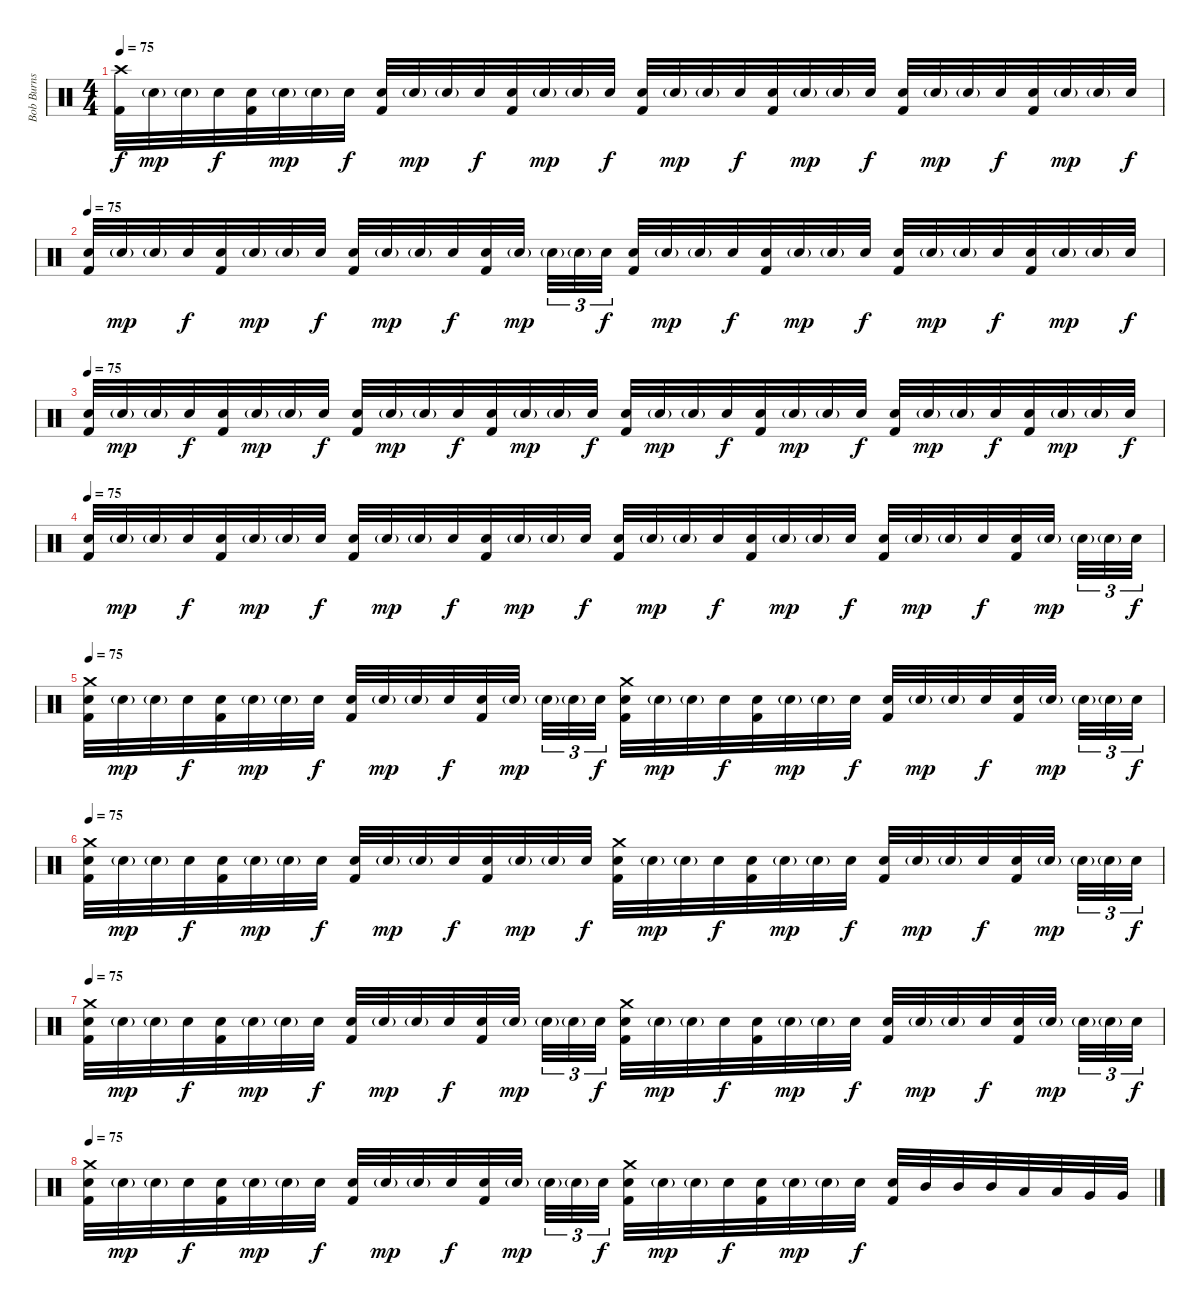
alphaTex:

\track ("Bob Burns (drums and percussion)" "Bob Burns ") {instrument percussion}
\staff {score}
\articulation defaults
\ts (4 4)
\tempo 75
\clef neutral
\ks c
("Crash high (hit)" "Kick (hit) 2").32{dy f} "Electric Snare (hit)"{g}.32{dy mp} "Electric Snare (hit)"{g}.32 "Electric Snare (hit)".32{dy f} ("Electric Snare (hit)" "Kick (hit) 2").32 "Electric Snare (hit)"{g}.32{dy mp} "Electric Snare (hit)"{g}.32 "Electric Snare (hit)".32{dy f} ("Electric Snare (hit)" "Kick (hit) 2").32 "Electric Snare (hit)"{g}.32{dy mp} "Electric Snare (hit)"{g}.32 "Electric Snare (hit)".32{dy f} ("Electric Snare (hit)" "Kick (hit) 2").32 "Electric Snare (hit)"{g}.32{dy mp} "Electric Snare (hit)"{g}.32 "Electric Snare (hit)".32{dy f} ("Electric Snare (hit)" "Kick (hit) 2").32 "Electric Snare (hit)"{g}.32{dy mp} "Electric Snare (hit)"{g}.32 "Electric Snare (hit)".32{dy f} ("Electric Snare (hit)" "Kick (hit) 2").32 "Electric Snare (hit)"{g}.32{dy mp} "Electric Snare (hit)"{g}.32 "Electric Snare (hit)".32{dy f} ("Electric Snare (hit)" "Kick (hit) 2").32 "Electric Snare (hit)"{g}.32{dy mp} "Electric Snare (hit)"{g}.32 "Electric Snare (hit)".32{dy f} ("Electric Snare (hit)" "Kick (hit) 2").32 "Electric Snare (hit)"{g}.32{dy mp} "Electric Snare (hit)"{g}.32 "Electric Snare (hit)".32{dy f} |
\tempo 75
("Electric Snare (hit)" "Kick (hit) 2").32 "Electric Snare (hit)"{g}.32{dy mp} "Electric Snare (hit)"{g}.32 "Electric Snare (hit)".32{dy f} ("Electric Snare (hit)" "Kick (hit) 2").32 "Electric Snare (hit)"{g}.32{dy mp} "Electric Snare (hit)"{g}.32 "Electric Snare (hit)".32{dy f} ("Electric Snare (hit)" "Kick (hit) 2").32 "Electric Snare (hit)"{g}.32{dy mp} "Electric Snare (hit)"{g}.32 "Electric Snare (hit)".32{dy f} ("Electric Snare (hit)" "Kick (hit) 2").32 "Electric Snare (hit)"{g}.32{dy mp beam splitsecondary} "Electric Snare (hit)"{g}.32{tu (3 2)} "Electric Snare (hit)"{g}.32{tu (3 2)} "Electric Snare (hit)".32{tu (3 2) dy f} ("Electric Snare (hit)" "Kick (hit) 2").32 "Electric Snare (hit)"{g}.32{dy mp} "Electric Snare (hit)"{g}.32 "Electric Snare (hit)".32{dy f} ("Electric Snare (hit)" "Kick (hit) 2").32 "Electric Snare (hit)"{g}.32{dy mp} "Electric Snare (hit)"{g}.32 "Electric Snare (hit)".32{dy f} ("Electric Snare (hit)" "Kick (hit) 2").32 "Electric Snare (hit)"{g}.32{dy mp} "Electric Snare (hit)"{g}.32 "Electric Snare (hit)".32{dy f} ("Electric Snare (hit)" "Kick (hit) 2").32 "Electric Snare (hit)"{g}.32{dy mp} "Electric Snare (hit)"{g}.32 "Electric Snare (hit)".32{dy f} |
\tempo 75
("Electric Snare (hit)" "Kick (hit) 2").32 "Electric Snare (hit)"{g}.32{dy mp} "Electric Snare (hit)"{g}.32 "Electric Snare (hit)".32{dy f} ("Electric Snare (hit)" "Kick (hit) 2").32 "Electric Snare (hit)"{g}.32{dy mp} "Electric Snare (hit)"{g}.32 "Electric Snare (hit)".32{dy f} ("Electric Snare (hit)" "Kick (hit) 2").32 "Electric Snare (hit)"{g}.32{dy mp} "Electric Snare (hit)"{g}.32 "Electric Snare (hit)".32{dy f} ("Electric Snare (hit)" "Kick (hit) 2").32 "Electric Snare (hit)"{g}.32{dy mp} "Electric Snare (hit)"{g}.32 "Electric Snare (hit)".32{dy f} ("Electric Snare (hit)" "Kick (hit) 2").32 "Electric Snare (hit)"{g}.32{dy mp} "Electric Snare (hit)"{g}.32 "Electric Snare (hit)".32{dy f} ("Electric Snare (hit)" "Kick (hit) 2").32 "Electric Snare (hit)"{g}.32{dy mp} "Electric Snare (hit)"{g}.32 "Electric Snare (hit)".32{dy f} ("Electric Snare (hit)" "Kick (hit) 2").32 "Electric Snare (hit)"{g}.32{dy mp} "Electric Snare (hit)"{g}.32 "Electric Snare (hit)".32{dy f} ("Electric Snare (hit)" "Kick (hit) 2").32 "Electric Snare (hit)"{g}.32{dy mp} "Electric Snare (hit)"{g}.32 "Electric Snare (hit)".32{dy f} |
\tempo 75
("Electric Snare (hit)" "Kick (hit) 2").32 "Electric Snare (hit)"{g}.32{dy mp} "Electric Snare (hit)"{g}.32 "Electric Snare (hit)".32{dy f} ("Electric Snare (hit)" "Kick (hit) 2").32 "Electric Snare (hit)"{g}.32{dy mp} "Electric Snare (hit)"{g}.32 "Electric Snare (hit)".32{dy f} ("Electric Snare (hit)" "Kick (hit) 2").32 "Electric Snare (hit)"{g}.32{dy mp} "Electric Snare (hit)"{g}.32 "Electric Snare (hit)".32{dy f} ("Electric Snare (hit)" "Kick (hit) 2").32 "Electric Snare (hit)"{g}.32{dy mp} "Electric Snare (hit)"{g}.32 "Electric Snare (hit)".32{dy f} ("Electric Snare (hit)" "Kick (hit) 2").32 "Electric Snare (hit)"{g}.32{dy mp} "Electric Snare (hit)"{g}.32 "Electric Snare (hit)".32{dy f} ("Electric Snare (hit)" "Kick (hit) 2").32 "Electric Snare (hit)"{g}.32{dy mp} "Electric Snare (hit)"{g}.32 "Electric Snare (hit)".32{dy f} ("Electric Snare (hit)" "Kick (hit) 2").32 "Electric Snare (hit)"{g}.32{dy mp} "Electric Snare (hit)"{g}.32 "Electric Snare (hit)".32{dy f} ("Electric Snare (hit)" "Kick (hit) 2").32 "Electric Snare (hit)"{g}.32{dy mp beam splitsecondary} "Electric Snare (hit)"{g}.32{tu (3 2)} "Electric Snare (hit)"{g}.32{tu (3 2)} "Electric Snare (hit)".32{tu (3 2) dy f} |
\tempo 75
("Crash medium (hit)" "Electric Snare (hit)" "Kick (hit) 2").32 "Electric Snare (hit)"{g}.32{dy mp} "Electric Snare (hit)"{g}.32 "Electric Snare (hit)".32{dy f} ("Electric Snare (hit)" "Kick (hit) 2").32 "Electric Snare (hit)"{g}.32{dy mp} "Electric Snare (hit)"{g}.32 "Electric Snare (hit)".32{dy f} ("Electric Snare (hit)" "Kick (hit) 2").32 "Electric Snare (hit)"{g}.32{dy mp} "Electric Snare (hit)"{g}.32 "Electric Snare (hit)".32{dy f} ("Electric Snare (hit)" "Kick (hit) 2").32 "Electric Snare (hit)"{g}.32{dy mp beam splitsecondary} "Electric Snare (hit)"{g}.32{tu (3 2)} "Electric Snare (hit)"{g}.32{tu (3 2)} "Electric Snare (hit)".32{tu (3 2) dy f} ("Crash medium (hit)" "Electric Snare (hit)" "Kick (hit) 2").32 "Electric Snare (hit)"{g}.32{dy mp} "Electric Snare (hit)"{g}.32 "Electric Snare (hit)".32{dy f} ("Electric Snare (hit)" "Kick (hit) 2").32 "Electric Snare (hit)"{g}.32{dy mp} "Electric Snare (hit)"{g}.32 "Electric Snare (hit)".32{dy f} ("Electric Snare (hit)" "Kick (hit) 2").32 "Electric Snare (hit)"{g}.32{dy mp} "Electric Snare (hit)"{g}.32 "Electric Snare (hit)".32{dy f} ("Electric Snare (hit)" "Kick (hit) 2").32 "Electric Snare (hit)"{g}.32{dy mp beam splitsecondary} "Electric Snare (hit)"{g}.32{tu (3 2)} "Electric Snare (hit)"{g}.32{tu (3 2)} "Electric Snare (hit)".32{tu (3 2) dy f} |
\tempo 75
("Crash medium (hit)" "Electric Snare (hit)" "Kick (hit) 2").32 "Electric Snare (hit)"{g}.32{dy mp} "Electric Snare (hit)"{g}.32 "Electric Snare (hit)".32{dy f} ("Electric Snare (hit)" "Kick (hit) 2").32 "Electric Snare (hit)"{g}.32{dy mp} "Electric Snare (hit)"{g}.32 "Electric Snare (hit)".32{dy f} ("Electric Snare (hit)" "Kick (hit) 2").32 "Electric Snare (hit)"{g}.32{dy mp} "Electric Snare (hit)"{g}.32 "Electric Snare (hit)".32{dy f} ("Electric Snare (hit)" "Kick (hit) 2").32 "Electric Snare (hit)"{g}.32{dy mp} "Electric Snare (hit)"{g}.32 "Electric Snare (hit)".32{dy f} ("Crash medium (hit)" "Electric Snare (hit)" "Kick (hit) 2").32 "Electric Snare (hit)"{g}.32{dy mp} "Electric Snare (hit)"{g}.32 "Electric Snare (hit)".32{dy f} ("Electric Snare (hit)" "Kick (hit) 2").32 "Electric Snare (hit)"{g}.32{dy mp} "Electric Snare (hit)"{g}.32 "Electric Snare (hit)".32{dy f} ("Electric Snare (hit)" "Kick (hit) 2").32 "Electric Snare (hit)"{g}.32{dy mp} "Electric Snare (hit)"{g}.32 "Electric Snare (hit)".32{dy f} ("Electric Snare (hit)" "Kick (hit) 2").32 "Electric Snare (hit)"{g}.32{dy mp beam splitsecondary} "Electric Snare (hit)"{g}.32{tu (3 2)} "Electric Snare (hit)"{g}.32{tu (3 2)} "Electric Snare (hit)".32{tu (3 2) dy f} |
\tempo 75
("Crash medium (hit)" "Electric Snare (hit)" "Kick (hit) 2").32 "Electric Snare (hit)"{g}.32{dy mp} "Electric Snare (hit)"{g}.32 "Electric Snare (hit)".32{dy f} ("Electric Snare (hit)" "Kick (hit) 2").32 "Electric Snare (hit)"{g}.32{dy mp} "Electric Snare (hit)"{g}.32 "Electric Snare (hit)".32{dy f} ("Electric Snare (hit)" "Kick (hit) 2").32 "Electric Snare (hit)"{g}.32{dy mp} "Electric Snare (hit)"{g}.32 "Electric Snare (hit)".32{dy f} ("Electric Snare (hit)" "Kick (hit) 2").32 "Electric Snare (hit)"{g}.32{dy mp beam splitsecondary} "Electric Snare (hit)"{g}.32{tu (3 2)} "Electric Snare (hit)"{g}.32{tu (3 2)} "Electric Snare (hit)".32{tu (3 2) dy f} ("Crash medium (hit)" "Electric Snare (hit)" "Kick (hit) 2").32 "Electric Snare (hit)"{g}.32{dy mp} "Electric Snare (hit)"{g}.32 "Electric Snare (hit)".32{dy f} ("Electric Snare (hit)" "Kick (hit) 2").32 "Electric Snare (hit)"{g}.32{dy mp} "Electric Snare (hit)"{g}.32 "Electric Snare (hit)".32{dy f} ("Electric Snare (hit)" "Kick (hit) 2").32 "Electric Snare (hit)"{g}.32{dy mp} "Electric Snare (hit)"{g}.32 "Electric Snare (hit)".32{dy f} ("Electric Snare (hit)" "Kick (hit) 2").32 "Electric Snare (hit)"{g}.32{dy mp beam splitsecondary} "Electric Snare (hit)"{g}.32{tu (3 2)} "Electric Snare (hit)"{g}.32{tu (3 2)} "Electric Snare (hit)".32{tu (3 2) dy f} |
\tempo 75
("Crash medium (hit)" "Electric Snare (hit)" "Kick (hit) 2").32 "Electric Snare (hit)"{g}.32{dy mp} "Electric Snare (hit)"{g}.32 "Electric Snare (hit)".32{dy f} ("Electric Snare (hit)" "Kick (hit) 2").32 "Electric Snare (hit)"{g}.32{dy mp} "Electric Snare (hit)"{g}.32 "Electric Snare (hit)".32{dy f} ("Electric Snare (hit)" "Kick (hit) 2").32 "Electric Snare (hit)"{g}.32{dy mp} "Electric Snare (hit)"{g}.32 "Electric Snare (hit)".32{dy f} ("Electric Snare (hit)" "Kick (hit) 2").32 "Electric Snare (hit)"{g}.32{dy mp beam splitsecondary} "Electric Snare (hit)"{g}.32{tu (3 2)} "Electric Snare (hit)"{g}.32{tu (3 2)} "Electric Snare (hit)".32{tu (3 2) dy f} ("Crash medium (hit)" "Electric Snare (hit)" "Kick (hit) 2").32 "Electric Snare (hit)"{g}.32{dy mp} "Electric Snare (hit)"{g}.32 "Electric Snare (hit)".32{dy f} ("Electric Snare (hit)" "Kick (hit) 2").32 "Electric Snare (hit)"{g}.32{dy mp} "Electric Snare (hit)"{g}.32 "Electric Snare (hit)".32{dy f} ("Electric Snare (hit)" "Kick (hit) 2").32 "Mid Tom (hit)".32 "Mid Tom (hit)".32 "Mid Tom (hit)".32 "Low Tom (hit)".32 "Low Tom (hit)".32 "Very Low Tom (hit)".32 "Very Low Tom (hit)".32
